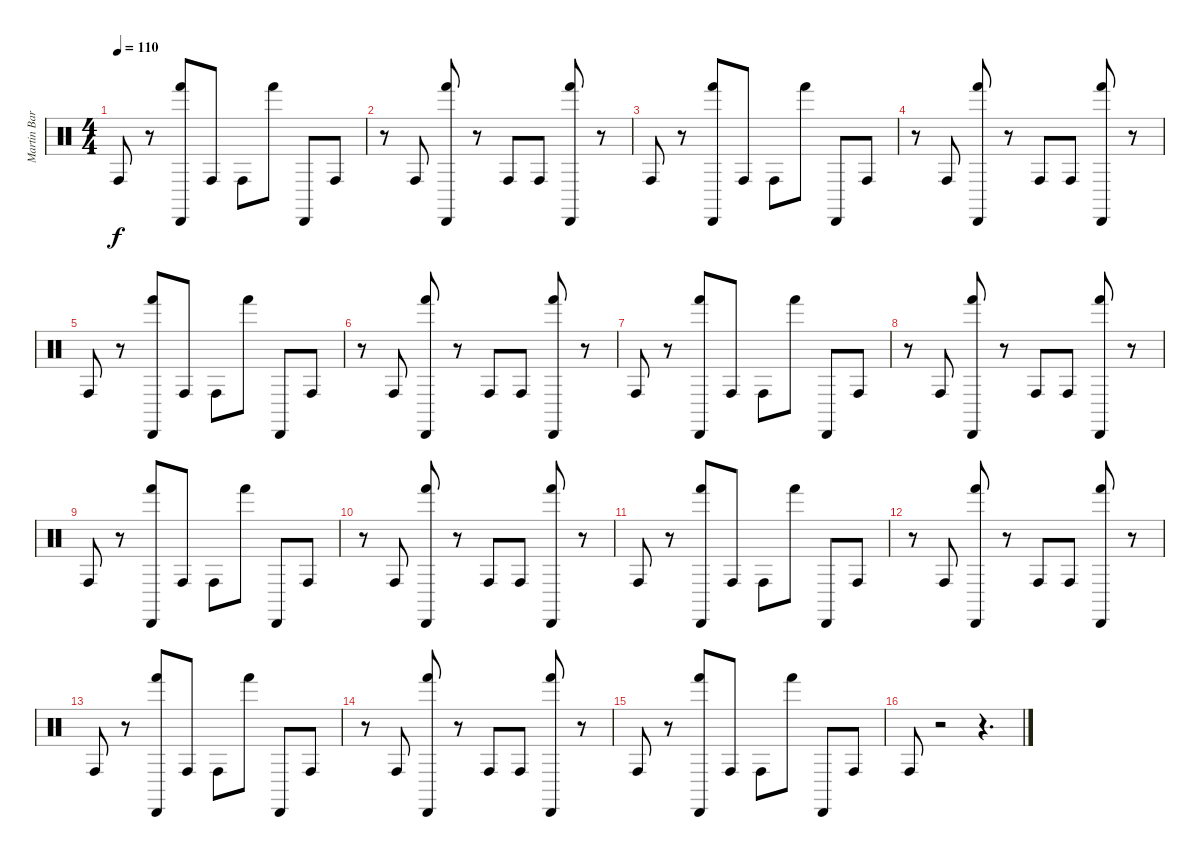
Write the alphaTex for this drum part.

\track ("Martin Barret" "Martin Bar") {instrument percussion}
\staff {score}
\articulation defaults
\ts (4 4)
\tempo 110
\clef neutral
\ks c "Conga high (hit)".8{dy f}
r.8 ("Cabasa (hit)" "Hand (hit)").8 "Conga high (hit)".8 "Conga high (hit)".8 "Hand (hit)".8 "Cabasa (hit)".8 "Conga high (hit)".8 |
r.8 "Conga high (hit)".8 ("Cabasa (hit)" "Hand (hit)").8 r.8 "Conga high (hit)".8 "Conga high (hit)".8 ("Cabasa (hit)" "Hand (hit)").8 r.8 |
"Conga high (hit)".8 r.8 ("Cabasa (hit)" "Hand (hit)").8 "Conga high (hit)".8 "Conga high (hit)".8 "Hand (hit)".8 "Cabasa (hit)".8 "Conga high (hit)".8 |
r.8 "Conga high (hit)".8 ("Cabasa (hit)" "Hand (hit)").8 r.8 "Conga high (hit)".8 "Conga high (hit)".8 ("Cabasa (hit)" "Hand (hit)").8 r.8 |
"Conga high (hit)".8 r.8 ("Cabasa (hit)" "Hand (hit)").8 "Conga high (hit)".8 "Conga high (hit)".8 "Hand (hit)".8 "Cabasa (hit)".8 "Conga high (hit)".8 |
r.8 "Conga high (hit)".8 ("Cabasa (hit)" "Hand (hit)").8 r.8 "Conga high (hit)".8 "Conga high (hit)".8 ("Cabasa (hit)" "Hand (hit)").8 r.8 |
"Conga high (hit)".8 r.8 ("Cabasa (hit)" "Hand (hit)").8 "Conga high (hit)".8 "Conga high (hit)".8 "Hand (hit)".8 "Cabasa (hit)".8 "Conga high (hit)".8 |
r.8 "Conga high (hit)".8 ("Cabasa (hit)" "Hand (hit)").8 r.8 "Conga high (hit)".8 "Conga high (hit)".8 ("Cabasa (hit)" "Hand (hit)").8 r.8 |
"Conga high (hit)".8 r.8 ("Cabasa (hit)" "Hand (hit)").8 "Conga high (hit)".8 "Conga high (hit)".8 "Hand (hit)".8 "Cabasa (hit)".8 "Conga high (hit)".8 |
r.8 "Conga high (hit)".8 ("Cabasa (hit)" "Hand (hit)").8 r.8 "Conga high (hit)".8 "Conga high (hit)".8 ("Cabasa (hit)" "Hand (hit)").8 r.8 |
"Conga high (hit)".8 r.8 ("Cabasa (hit)" "Hand (hit)").8 "Conga high (hit)".8 "Conga high (hit)".8 "Hand (hit)".8 "Cabasa (hit)".8 "Conga high (hit)".8 |
r.8 "Conga high (hit)".8 ("Cabasa (hit)" "Hand (hit)").8 r.8 "Conga high (hit)".8 "Conga high (hit)".8 ("Cabasa (hit)" "Hand (hit)").8 r.8 |
"Conga high (hit)".8 r.8 ("Cabasa (hit)" "Hand (hit)").8 "Conga high (hit)".8 "Conga high (hit)".8 "Hand (hit)".8 "Cabasa (hit)".8 "Conga high (hit)".8 |
r.8 "Conga high (hit)".8 ("Cabasa (hit)" "Hand (hit)").8 r.8 "Conga high (hit)".8 "Conga high (hit)".8 ("Cabasa (hit)" "Hand (hit)").8 r.8 |
"Conga high (hit)".8 r.8 ("Cabasa (hit)" "Hand (hit)").8 "Conga high (hit)".8 "Conga high (hit)".8 "Hand (hit)".8 "Cabasa (hit)".8 "Conga high (hit)".8 |
"Conga high (hit)".8 r.2 r.4{d}
